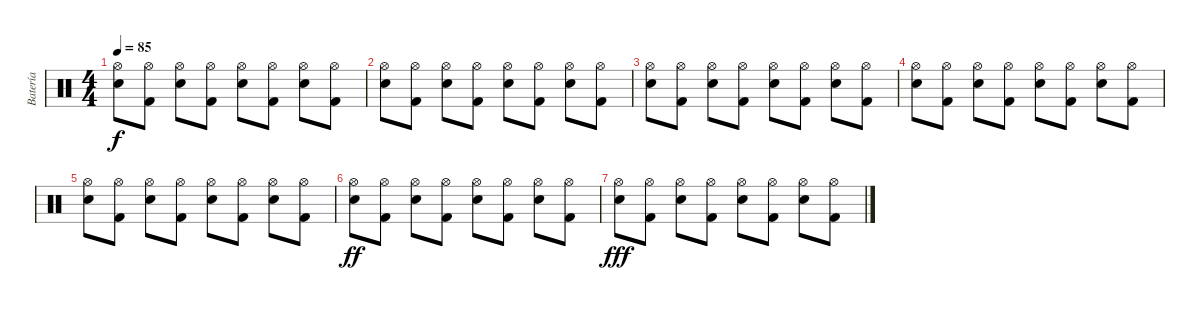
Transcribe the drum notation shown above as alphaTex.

\track ("Batería" "Batería") {instrument percussion}
\staff {score}
\articulation defaults
\ts (4 4)
\tempo 85
\clef neutral
\ks c
("Hi-Hat (open)" "Electric Snare (hit)").8{dy f} ("Hi-Hat (open)" "Kick (hit) 2").8 ("Hi-Hat (open)" "Electric Snare (hit)").8 ("Hi-Hat (open)" "Kick (hit) 2").8 ("Hi-Hat (open)" "Electric Snare (hit)").8 ("Hi-Hat (open)" "Kick (hit) 2").8 ("Hi-Hat (open)" "Electric Snare (hit)").8 ("Hi-Hat (open)" "Kick (hit) 2").8 |
("Hi-Hat (open)" "Electric Snare (hit)").8 ("Hi-Hat (open)" "Kick (hit) 2").8 ("Hi-Hat (open)" "Electric Snare (hit)").8 ("Hi-Hat (open)" "Kick (hit) 2").8 ("Hi-Hat (open)" "Electric Snare (hit)").8 ("Hi-Hat (open)" "Kick (hit) 2").8 ("Hi-Hat (open)" "Electric Snare (hit)").8 ("Hi-Hat (open)" "Kick (hit) 2").8 |
("Hi-Hat (open)" "Electric Snare (hit)").8 ("Hi-Hat (open)" "Kick (hit) 2").8 ("Hi-Hat (open)" "Electric Snare (hit)").8 ("Hi-Hat (open)" "Kick (hit) 2").8 ("Hi-Hat (open)" "Electric Snare (hit)").8 ("Hi-Hat (open)" "Kick (hit) 2").8 ("Hi-Hat (open)" "Electric Snare (hit)").8 ("Hi-Hat (open)" "Kick (hit) 2").8 |
("Hi-Hat (open)" "Electric Snare (hit)").8 ("Hi-Hat (open)" "Kick (hit) 2").8 ("Hi-Hat (open)" "Electric Snare (hit)").8 ("Hi-Hat (open)" "Kick (hit) 2").8 ("Hi-Hat (open)" "Electric Snare (hit)").8 ("Hi-Hat (open)" "Kick (hit) 2").8 ("Hi-Hat (open)" "Electric Snare (hit)").8 ("Hi-Hat (open)" "Kick (hit) 2").8 |
("Hi-Hat (open)" "Electric Snare (hit)").8 ("Hi-Hat (open)" "Kick (hit) 2").8 ("Hi-Hat (open)" "Electric Snare (hit)").8 ("Hi-Hat (open)" "Kick (hit) 2").8 ("Hi-Hat (open)" "Electric Snare (hit)").8 ("Hi-Hat (open)" "Kick (hit) 2").8 ("Hi-Hat (open)" "Electric Snare (hit)").8 ("Hi-Hat (open)" "Kick (hit) 2").8 |
("Hi-Hat (open)" "Electric Snare (hit)").8{dy ff} ("Hi-Hat (open)" "Kick (hit) 2").8 ("Hi-Hat (open)" "Electric Snare (hit)").8 ("Hi-Hat (open)" "Kick (hit) 2").8 ("Hi-Hat (open)" "Electric Snare (hit)").8 ("Hi-Hat (open)" "Kick (hit) 2").8 ("Hi-Hat (open)" "Electric Snare (hit)").8 ("Hi-Hat (open)" "Kick (hit) 2").8 |
("Hi-Hat (open)" "Electric Snare (hit)").8{dy fff} ("Hi-Hat (open)" "Kick (hit) 2").8 ("Hi-Hat (open)" "Electric Snare (hit)").8 ("Hi-Hat (open)" "Kick (hit) 2").8 ("Hi-Hat (open)" "Electric Snare (hit)").8 ("Hi-Hat (open)" "Kick (hit) 2").8 ("Hi-Hat (open)" "Electric Snare (hit)").8 ("Hi-Hat (open)" "Kick (hit) 2").8
